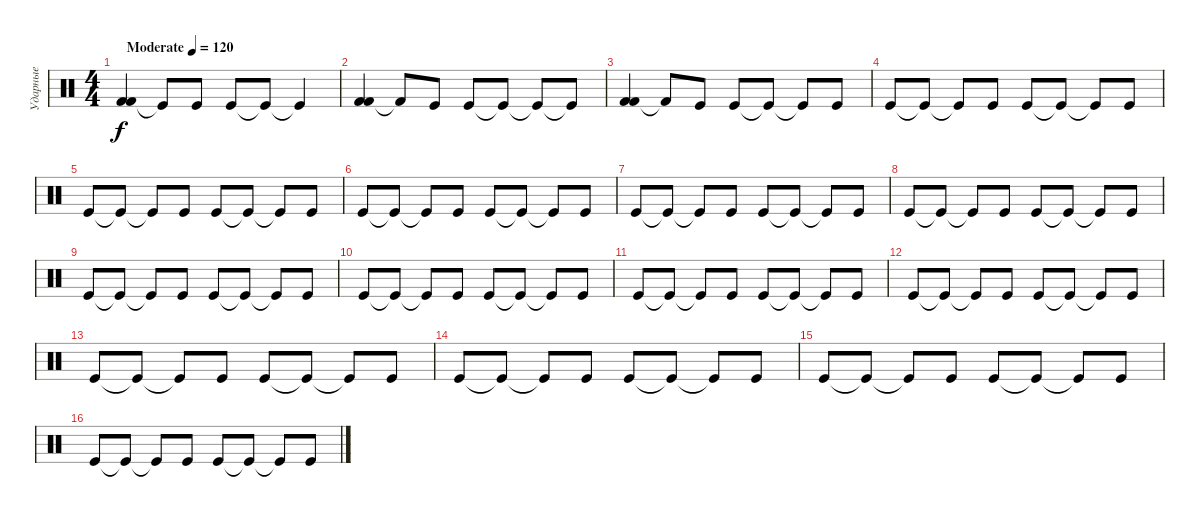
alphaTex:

\track ("Ударные" "Ударные") {instrument percussion}
\staff {score}
\articulation defaults
\ts (4 4)
\tempo (120 "Moderate")
\clef neutral
\ks c
("Kick (hit) 2" "Kick (hit) 2").4{dy f} "Kick (hit)"{t}.8 "Kick (hit)".8 "Kick (hit)".8 "Kick (hit)"{t}.8 "Kick (hit)"{t}.4 |
("Kick (hit) 2" "Kick (hit) 2").4 "Kick (hit) 2"{t}.8 "Kick (hit)".8 "Kick (hit)".8 "Kick (hit)"{t}.8 "Kick (hit)"{t}.8 "Kick (hit)"{t}.8 |
("Kick (hit) 2" "Kick (hit) 2").4 "Kick (hit) 2"{t}.8 "Kick (hit)".8 "Kick (hit)".8 "Kick (hit)"{t}.8 "Kick (hit)"{t}.8 "Kick (hit)".8 |
"Kick (hit)".8 "Kick (hit)"{t}.8 "Kick (hit)"{t}.8 "Kick (hit)".8 "Kick (hit)".8 "Kick (hit)"{t}.8 "Kick (hit)"{t}.8 "Kick (hit)".8 |
"Kick (hit)".8 "Kick (hit)"{t}.8 "Kick (hit)"{t}.8 "Kick (hit)".8 "Kick (hit)".8 "Kick (hit)"{t}.8 "Kick (hit)"{t}.8 "Kick (hit)".8 |
"Kick (hit)".8 "Kick (hit)"{t}.8 "Kick (hit)"{t}.8 "Kick (hit)".8 "Kick (hit)".8 "Kick (hit)"{t}.8 "Kick (hit)"{t}.8 "Kick (hit)".8 |
"Kick (hit)".8 "Kick (hit)"{t}.8 "Kick (hit)"{t}.8 "Kick (hit)".8 "Kick (hit)".8 "Kick (hit)"{t}.8 "Kick (hit)"{t}.8 "Kick (hit)".8 |
"Kick (hit)".8 "Kick (hit)"{t}.8 "Kick (hit)"{t}.8 "Kick (hit)".8 "Kick (hit)".8 "Kick (hit)"{t}.8 "Kick (hit)"{t}.8 "Kick (hit)".8 |
"Kick (hit)".8 "Kick (hit)"{t}.8 "Kick (hit)"{t}.8 "Kick (hit)".8 "Kick (hit)".8 "Kick (hit)"{t}.8 "Kick (hit)"{t}.8 "Kick (hit)".8 |
"Kick (hit)".8 "Kick (hit)"{t}.8 "Kick (hit)"{t}.8 "Kick (hit)".8 "Kick (hit)".8 "Kick (hit)"{t}.8 "Kick (hit)"{t}.8 "Kick (hit)".8 |
"Kick (hit)".8 "Kick (hit)"{t}.8 "Kick (hit)"{t}.8 "Kick (hit)".8 "Kick (hit)".8 "Kick (hit)"{t}.8 "Kick (hit)"{t}.8 "Kick (hit)".8 |
"Kick (hit)".8 "Kick (hit)"{t}.8 "Kick (hit)"{t}.8 "Kick (hit)".8 "Kick (hit)".8 "Kick (hit)"{t}.8 "Kick (hit)"{t}.8 "Kick (hit)".8 |
"Kick (hit)".8 "Kick (hit)"{t}.8 "Kick (hit)"{t}.8 "Kick (hit)".8 "Kick (hit)".8 "Kick (hit)"{t}.8 "Kick (hit)"{t}.8 "Kick (hit)".8 |
"Kick (hit)".8 "Kick (hit)"{t}.8 "Kick (hit)"{t}.8 "Kick (hit)".8 "Kick (hit)".8 "Kick (hit)"{t}.8 "Kick (hit)"{t}.8 "Kick (hit)".8 |
"Kick (hit)".8 "Kick (hit)"{t}.8 "Kick (hit)"{t}.8 "Kick (hit)".8 "Kick (hit)".8 "Kick (hit)"{t}.8 "Kick (hit)"{t}.8 "Kick (hit)".8 |
"Kick (hit)".8 "Kick (hit)"{t}.8 "Kick (hit)"{t}.8 "Kick (hit)".8 "Kick (hit)".8 "Kick (hit)"{t}.8 "Kick (hit)"{t}.8 "Kick (hit)".8
